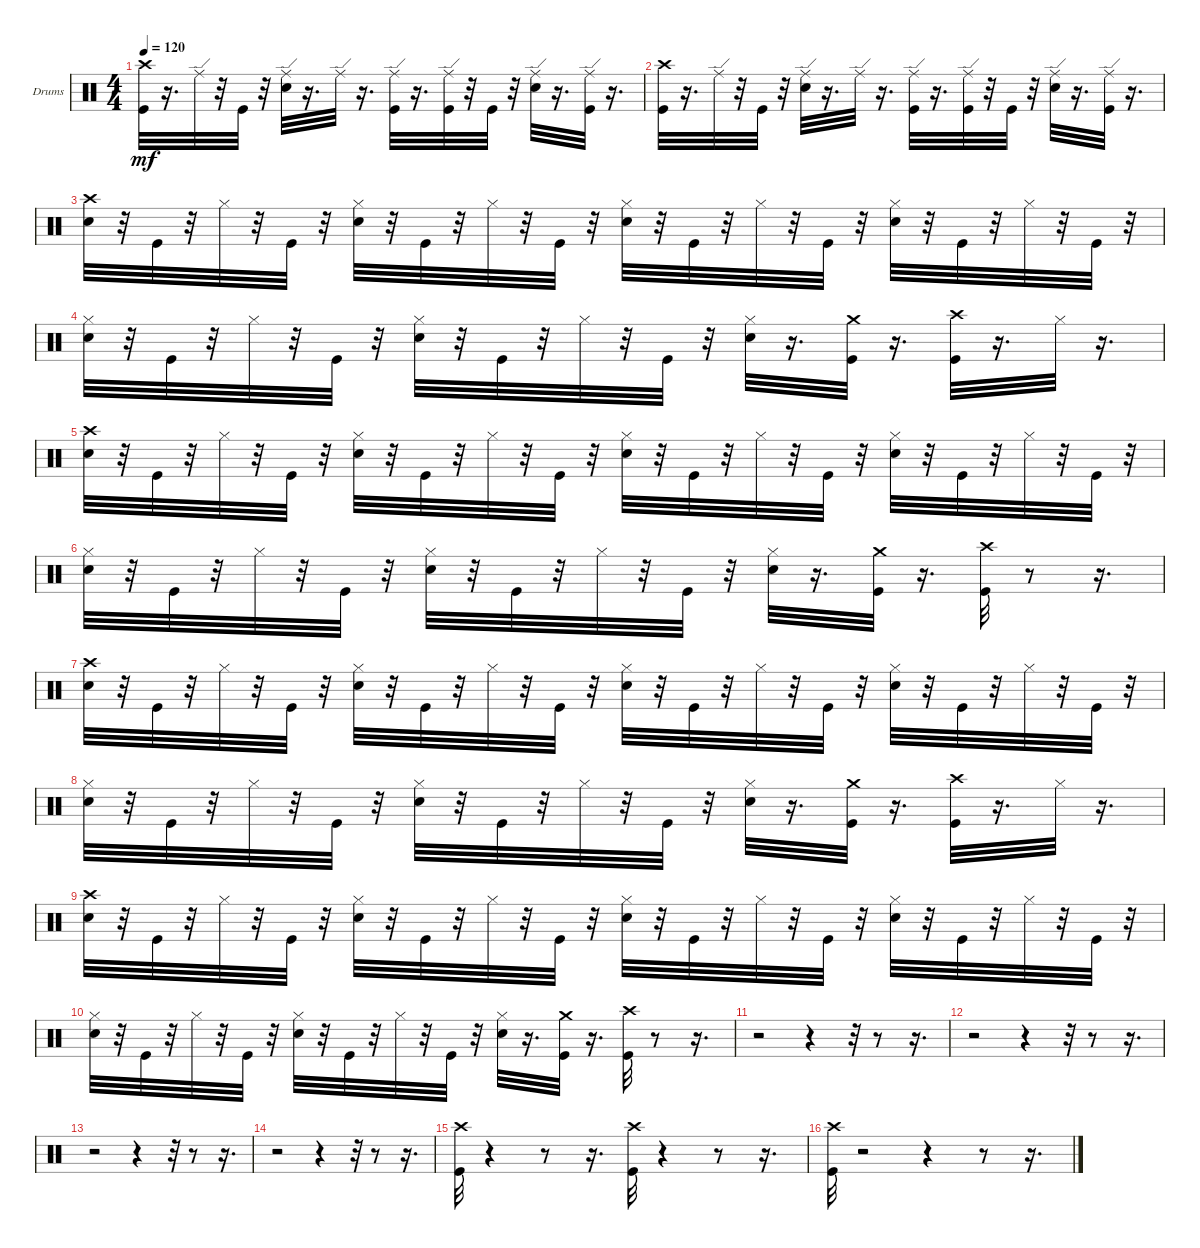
\bracketExtendMode groupsimilarinstruments
\firstSystemTrackNameOrientation horizontal
\otherSystemsTrackNameOrientation horizontal
\track ("" "Drums") {instrument percussion}
\staff {score}
\articulation defaults
\ts (4 4)
\tempo 120
\clef neutral
\ks c
("Crash high (hit)" "Kick (hit)").32{dy mf} r.16{d} "Ride (edge)".32 r.32 "Kick (hit)".32 r.32 ("Snare (hit) 2" "Ride (edge)").32 r.16{d} "Ride (edge)".32 r.16{d} ("Kick (hit)" "Ride (edge)").32 r.16{d} ("Kick (hit)" "Ride (edge)").32 r.32 "Kick (hit)".32 r.32 ("Snare (hit) 2" "Ride (edge)").32 r.16{d} ("Kick (hit)" "Ride (edge)").32 r.16{d} |
("Crash high (hit)" "Kick (hit)").32 r.16{d} "Ride (edge)".32 r.32 "Kick (hit)".32 r.32 ("Snare (hit) 2" "Ride (edge)").32 r.16{d} "Ride (edge)".32 r.16{d} ("Kick (hit)" "Ride (edge)").32 r.16{d} ("Kick (hit)" "Ride (edge)").32 r.32 "Kick (hit)".32 r.32 ("Snare (hit) 2" "Ride (edge)").32 r.16{d} ("Kick (hit)" "Ride (edge)").32 r.16{d} |
("Snare (hit) 2" "Crash high (hit)").32 r.32 "Kick (hit)".32 r.32 "Hi-Hat (closed)".32 r.32 "Kick (hit)".32 r.32 ("Hi-Hat (closed)" "Snare (hit) 2").32 r.32 "Kick (hit)".32 r.32 "Hi-Hat (closed)".32 r.32 "Kick (hit)".32 r.32 ("Hi-Hat (closed)" "Snare (hit) 2").32 r.32 "Kick (hit)".32 r.32 "Hi-Hat (closed)".32 r.32 "Kick (hit)".32 r.32 ("Snare (hit) 2" "Hi-Hat (closed)").32 r.32 "Kick (hit)".32 r.32 "Hi-Hat (closed)".32 r.32 "Kick (hit)".32 r.32 |
("Hi-Hat (closed)" "Snare (hit) 2").32 r.32 "Kick (hit)".32 r.32 "Hi-Hat (closed)".32 r.32 "Kick (hit)".32 r.32 ("Hi-Hat (closed)" "Snare (hit) 2").32 r.32 "Kick (hit)".32 r.32 "Hi-Hat (closed)".32 r.32 "Kick (hit)".32 r.32 ("Hi-Hat (closed)" "Snare (hit) 2").32 r.16{d} ("Crash medium (hit)" "Kick (hit)").32 r.16{d} ("Crash high (hit)" "Kick (hit)").32 r.16{d} "Hi-Hat (closed)".32 r.16{d} |
("Snare (hit) 2" "Crash high (hit)").32 r.32 "Kick (hit)".32 r.32 "Hi-Hat (closed)".32 r.32 "Kick (hit)".32 r.32 ("Hi-Hat (closed)" "Snare (hit) 2").32 r.32 "Kick (hit)".32 r.32 "Hi-Hat (closed)".32 r.32 "Kick (hit)".32 r.32 ("Hi-Hat (closed)" "Snare (hit) 2").32 r.32 "Kick (hit)".32 r.32 "Hi-Hat (closed)".32 r.32 "Kick (hit)".32 r.32 ("Snare (hit) 2" "Hi-Hat (closed)").32 r.32 "Kick (hit)".32 r.32 "Hi-Hat (closed)".32 r.32 "Kick (hit)".32 r.32 |
("Hi-Hat (closed)" "Snare (hit) 2").32 r.32 "Kick (hit)".32 r.32 "Hi-Hat (closed)".32 r.32 "Kick (hit)".32 r.32 ("Hi-Hat (closed)" "Snare (hit) 2").32 r.32 "Kick (hit)".32 r.32 "Hi-Hat (closed)".32 r.32 "Kick (hit)".32 r.32 ("Hi-Hat (closed)" "Snare (hit) 2").32 r.16{d} ("Crash medium (hit)" "Kick (hit)").32 r.16{d} ("Crash high (hit)" "Kick (hit)").32 r.8 r.16{d} |
("Snare (hit) 2" "Crash high (hit)").32 r.32 "Kick (hit)".32 r.32 "Hi-Hat (closed)".32 r.32 "Kick (hit)".32 r.32 ("Hi-Hat (closed)" "Snare (hit) 2").32 r.32 "Kick (hit)".32 r.32 "Hi-Hat (closed)".32 r.32 "Kick (hit)".32 r.32 ("Hi-Hat (closed)" "Snare (hit) 2").32 r.32 "Kick (hit)".32 r.32 "Hi-Hat (closed)".32 r.32 "Kick (hit)".32 r.32 ("Snare (hit) 2" "Hi-Hat (closed)").32 r.32 "Kick (hit)".32 r.32 "Hi-Hat (closed)".32 r.32 "Kick (hit)".32 r.32 |
("Hi-Hat (closed)" "Snare (hit) 2").32 r.32 "Kick (hit)".32 r.32 "Hi-Hat (closed)".32 r.32 "Kick (hit)".32 r.32 ("Hi-Hat (closed)" "Snare (hit) 2").32 r.32 "Kick (hit)".32 r.32 "Hi-Hat (closed)".32 r.32 "Kick (hit)".32 r.32 ("Hi-Hat (closed)" "Snare (hit) 2").32 r.16{d} ("Crash medium (hit)" "Kick (hit)").32 r.16{d} ("Crash high (hit)" "Kick (hit)").32 r.16{d} "Hi-Hat (closed)".32 r.16{d} |
("Snare (hit) 2" "Crash high (hit)").32 r.32 "Kick (hit)".32 r.32 "Hi-Hat (closed)".32 r.32 "Kick (hit)".32 r.32 ("Hi-Hat (closed)" "Snare (hit) 2").32 r.32 "Kick (hit)".32 r.32 "Hi-Hat (closed)".32 r.32 "Kick (hit)".32 r.32 ("Hi-Hat (closed)" "Snare (hit) 2").32 r.32 "Kick (hit)".32 r.32 "Hi-Hat (closed)".32 r.32 "Kick (hit)".32 r.32 ("Snare (hit) 2" "Hi-Hat (closed)").32 r.32 "Kick (hit)".32 r.32 "Hi-Hat (closed)".32 r.32 "Kick (hit)".32 r.32 |
("Hi-Hat (closed)" "Snare (hit) 2").32 r.32 "Kick (hit)".32 r.32 "Hi-Hat (closed)".32 r.32 "Kick (hit)".32 r.32 ("Hi-Hat (closed)" "Snare (hit) 2").32 r.32 "Kick (hit)".32 r.32 "Hi-Hat (closed)".32 r.32 "Kick (hit)".32 r.32 ("Hi-Hat (closed)" "Snare (hit) 2").32 r.16{d} ("Crash medium (hit)" "Kick (hit)").32 r.16{d} ("Crash high (hit)" "Kick (hit)").32 r.8 r.16{d} |
r.2 r.4 r.32 r.8 r.16{d} |
r.2 r.4 r.32 r.8 r.16{d} |
r.2 r.4 r.32 r.8 r.16{d} |
r.2 r.4 r.32 r.8 r.16{d} |
("Crash high (hit)" "Kick (hit)").32 r.4 r.8 r.16{d} ("Crash high (hit)" "Kick (hit)").32 r.4 r.8 r.16{d} |
("Crash high (hit)" "Kick (hit)").32 r.2 r.4 r.8 r.16{d}
